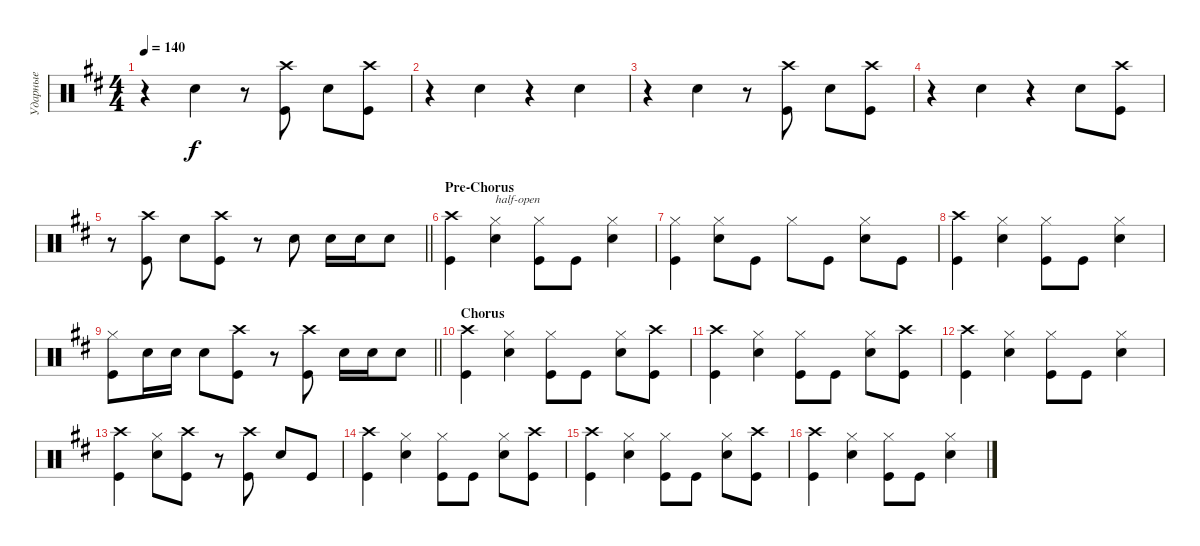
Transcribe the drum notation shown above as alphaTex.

\track ("Ударные" "Ударные") {instrument percussion}
\staff {score}
\articulation defaults
\ts (4 4)
\tempo 140
\clef neutral
\ks bminor
r.4{dy f} "Snare (hit) 2".4 r.8 ("Kick (hit)" "Crash high (hit)").8 "Snare (hit) 2".8 ("Kick (hit)" "Crash high (hit)").8 |
r.4 "Snare (hit) 2".4 r.4 "Snare (hit) 2".4 |
r.4 "Snare (hit) 2".4 r.8 ("Kick (hit)" "Crash high (hit)").8 "Snare (hit) 2".8 ("Kick (hit)" "Crash high (hit)").8 |
r.4 "Snare (hit) 2".4 r.4 "Snare (hit) 2".8 ("Crash high (hit)" "Kick (hit)").8 |
\barLineRight lightlight
r.8 ("Kick (hit)" "Crash high (hit)").8 "Snare (hit) 2".8 ("Kick (hit)" "Crash high (hit)").8 r.8 "Snare (hit) 2".8 "Snare (hit) 2".16 "Snare (hit) 2".16 "Snare (hit) 2".8 |
\section ("" "Pre-Chorus")
("Kick (hit)" "Crash high (hit)").4 ("Snare (hit) 2" "Hi-Hat (closed)").4{txt "half-open"} ("Kick (hit)" "Hi-Hat (closed)").8 "Kick (hit)".8 ("Snare (hit) 2" "Hi-Hat (closed)").4 |
("Kick (hit)" "Hi-Hat (closed)").4 ("Snare (hit) 2" "Hi-Hat (closed)").8 "Kick (hit)".8 "Hi-Hat (closed)".8 "Kick (hit)".8 ("Snare (hit) 2" "Hi-Hat (closed)").8 "Kick (hit)".8 |
("Kick (hit)" "Crash high (hit)").4 ("Snare (hit) 2" "Hi-Hat (closed)").4 ("Kick (hit)" "Hi-Hat (closed)").8 "Kick (hit)".8 ("Snare (hit) 2" "Hi-Hat (closed)").4 |
\barLineRight lightlight
("Kick (hit)" "Hi-Hat (closed)").8 "Snare (hit) 2".16 "Snare (hit) 2".16 "Snare (hit) 2".8 ("Kick (hit)" "Crash high (hit)").8 r.8 ("Kick (hit)" "Crash high (hit)").8 "Snare (hit) 2".16 "Snare (hit) 2".16 "Snare (hit) 2".8 |
\section ("" "Chorus")
("Kick (hit)" "Crash high (hit)").4 ("Snare (hit) 2" "Hi-Hat (closed)").4 ("Kick (hit)" "Hi-Hat (closed)").8 "Kick (hit)".8 ("Snare (hit) 2" "Hi-Hat (closed)").8 ("Kick (hit)" "Crash high (hit)").8 |
("Kick (hit)" "Crash high (hit)").4 ("Snare (hit) 2" "Hi-Hat (closed)").4 ("Kick (hit)" "Hi-Hat (closed)").8 "Kick (hit)".8 ("Snare (hit) 2" "Hi-Hat (closed)").8 ("Kick (hit)" "Crash high (hit)").8 |
("Kick (hit)" "Crash high (hit)").4 ("Snare (hit) 2" "Hi-Hat (closed)").4 ("Kick (hit)" "Hi-Hat (closed)").8 "Kick (hit)".8 ("Snare (hit) 2" "Hi-Hat (closed)").4 |
("Kick (hit)" "Crash high (hit)").4 ("Snare (hit) 2" "Hi-Hat (closed)").8 ("Kick (hit)" "Crash high (hit)").8 r.8 ("Kick (hit)" "Crash high (hit)").8 "Snare (hit) 2".8 "Kick (hit)".8 |
("Kick (hit)" "Crash high (hit)").4 ("Snare (hit) 2" "Hi-Hat (closed)").4 ("Kick (hit)" "Hi-Hat (closed)").8 "Kick (hit)".8 ("Snare (hit) 2" "Hi-Hat (closed)").8 ("Kick (hit)" "Crash high (hit)").8 |
("Kick (hit)" "Crash high (hit)").4 ("Snare (hit) 2" "Hi-Hat (closed)").4 ("Kick (hit)" "Hi-Hat (closed)").8 "Kick (hit)".8 ("Snare (hit) 2" "Hi-Hat (closed)").8 ("Kick (hit)" "Crash high (hit)").8 |
("Kick (hit)" "Crash high (hit)").4 ("Snare (hit) 2" "Hi-Hat (closed)").4 ("Kick (hit)" "Hi-Hat (closed)").8 "Kick (hit)".8 ("Snare (hit) 2" "Hi-Hat (closed)").4
